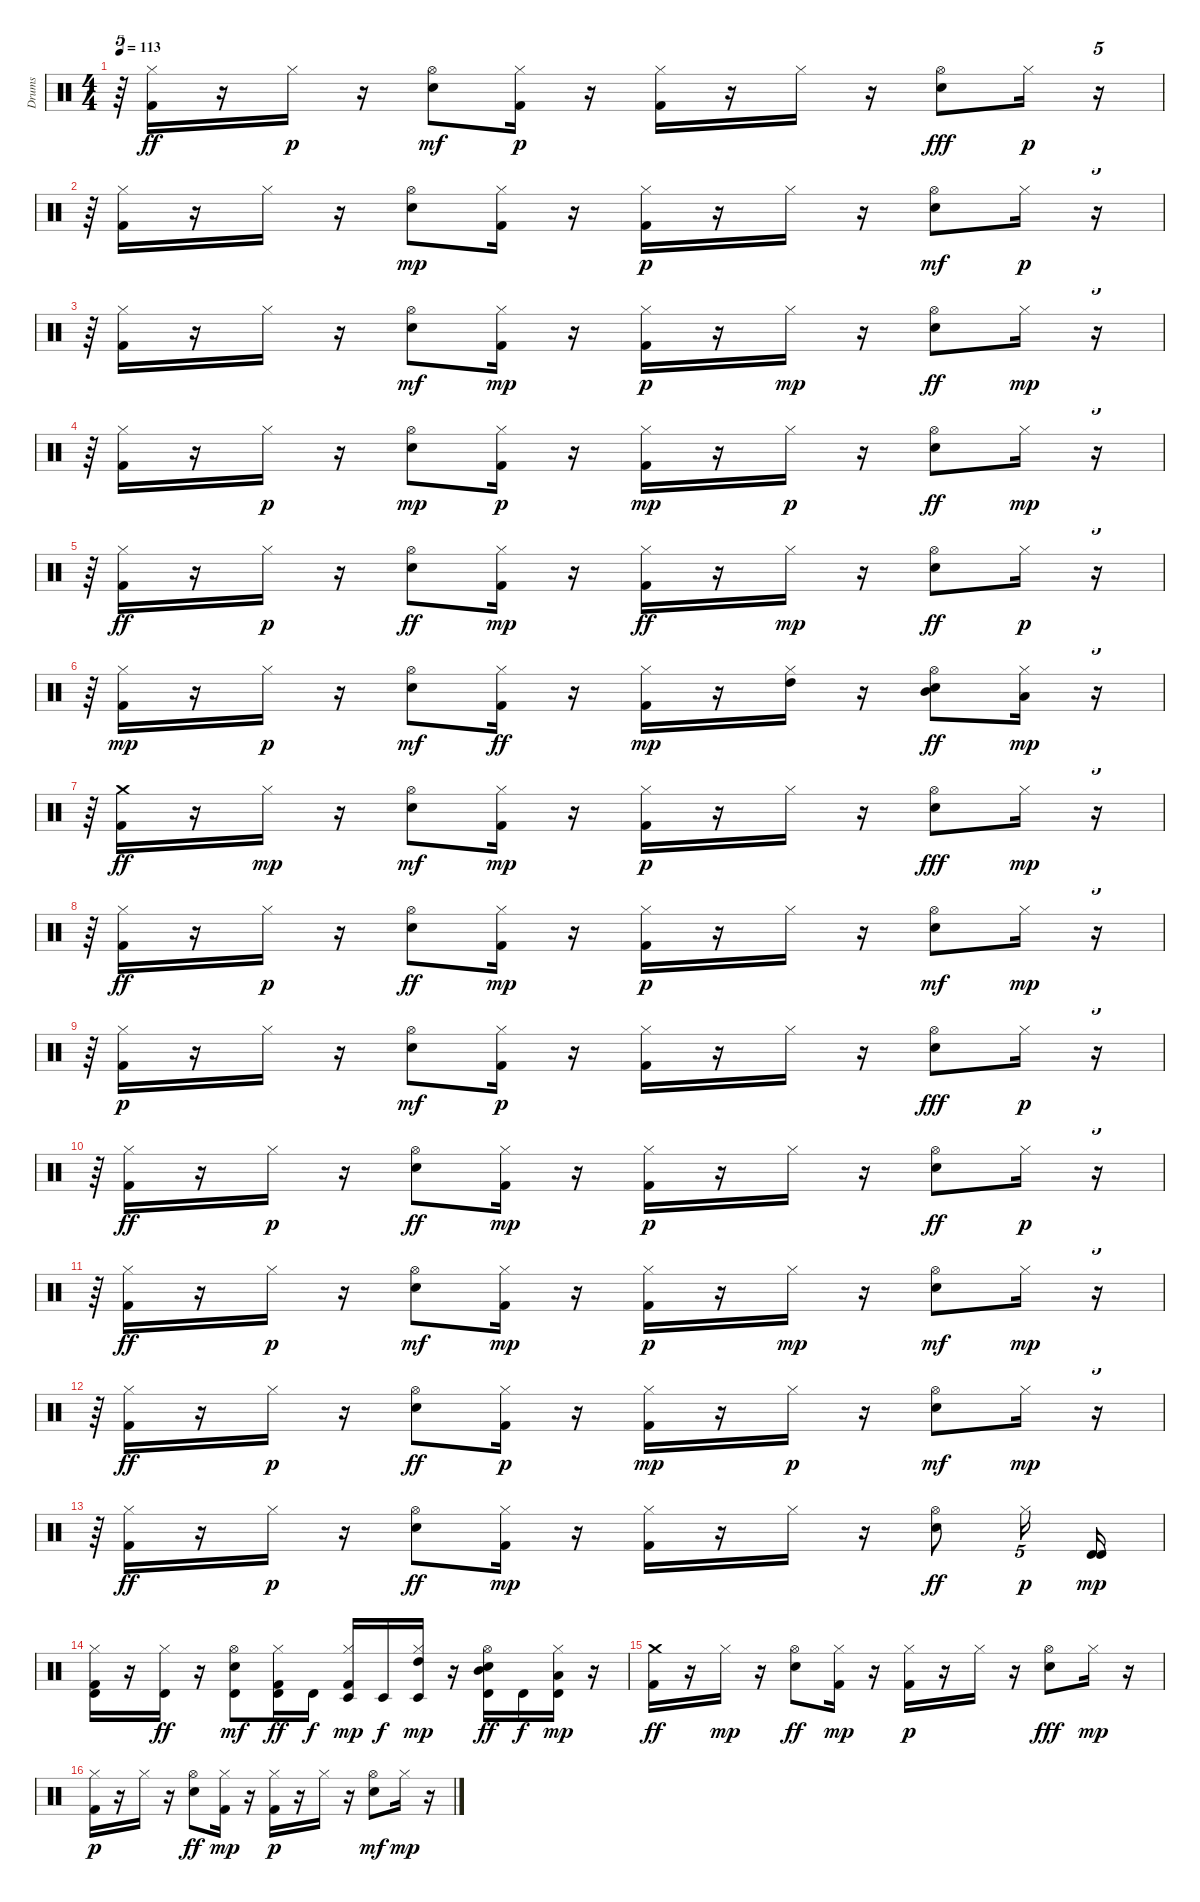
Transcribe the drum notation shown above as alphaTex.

\track ("Drums" "Drums") {instrument percussion}
\staff {score}
\articulation defaults
\ts (4 4)
\tempo 113
\clef neutral
\ks c
r.64{tu (5 4) dy mp} ("Hi-Hat (closed)" "Kick (hit) 2").16{dy ff} r.16 "Hi-Hat (closed)".16{dy p} r.16 ("Electric Snare (hit)" "Hi-Hat (open)").8{dy mf} ("Hi-Hat (closed)" "Kick (hit) 2").16{dy p} r.16 ("Kick (hit) 2" "Hi-Hat (closed)").16 r.16 "Hi-Hat (closed)".16 r.16 ("Electric Snare (hit)" "Hi-Hat (open)").8{dy fff} "Hi-Hat (closed)".16{dy p} r.16{tu (5 4)} |
r.64{tu (5 4)} ("Kick (hit) 2" "Hi-Hat (closed)").16 r.16 "Hi-Hat (closed)".16 r.16 ("Electric Snare (hit)" "Hi-Hat (open)").8{dy mp} ("Kick (hit) 2" "Hi-Hat (closed)").16 r.16 ("Hi-Hat (closed)" "Kick (hit) 2").16{dy p} r.16 "Hi-Hat (closed)".16 r.16 ("Electric Snare (hit)" "Hi-Hat (open)").8{dy mf} "Hi-Hat (closed)".16{dy p} r.16{tu (5 4)} |
r.64{tu (5 4)} ("Kick (hit) 2" "Hi-Hat (closed)").16 r.16 "Hi-Hat (closed)".16 r.16 ("Electric Snare (hit)" "Hi-Hat (open)").8{dy mf} ("Kick (hit) 2" "Hi-Hat (closed)").16{dy mp} r.16 ("Hi-Hat (closed)" "Kick (hit) 2").16{dy p} r.16 "Hi-Hat (closed)".16{dy mp} r.16 ("Hi-Hat (open)" "Electric Snare (hit)").8{dy ff} "Hi-Hat (closed)".16{dy mp} r.16{tu (5 4)} |
r.64{tu (5 4)} ("Kick (hit) 2" "Hi-Hat (closed)").16 r.16 "Hi-Hat (closed)".16{dy p} r.16 ("Electric Snare (hit)" "Hi-Hat (open)").8{dy mp} ("Hi-Hat (closed)" "Kick (hit) 2").16{dy p} r.16 ("Kick (hit) 2" "Hi-Hat (closed)").16{dy mp} r.16 "Hi-Hat (closed)".16{dy p} r.16 ("Hi-Hat (open)" "Electric Snare (hit)").8{dy ff} "Hi-Hat (closed)".16{dy mp} r.16{tu (5 4)} |
r.64{tu (5 4)} ("Hi-Hat (closed)" "Kick (hit) 2").16{dy ff} r.16 "Hi-Hat (closed)".16{dy p} r.16 ("Hi-Hat (open)" "Electric Snare (hit)").8{dy ff} ("Kick (hit) 2" "Hi-Hat (closed)").16{dy mp} r.16 ("Hi-Hat (closed)" "Kick (hit) 2").16{dy ff} r.16 "Hi-Hat (closed)".16{dy mp} r.16 ("Hi-Hat (open)" "Electric Snare (hit)").8{dy ff} "Hi-Hat (closed)".16{dy p} r.16{tu (5 4)} |
r.64{tu (5 4)} ("Kick (hit) 2" "Hi-Hat (closed)").16{dy mp} r.16 "Hi-Hat (closed)".16{dy p} r.16 ("Electric Snare (hit)" "Hi-Hat (open)").8{dy mf} ("Hi-Hat (closed)" "Kick (hit) 2").16{dy ff} r.16 ("Kick (hit) 2" "Hi-Hat (closed)").16{dy mp} r.16 ("Hi-Hat (closed)" "High Tom (hit)").16 r.16 ("Hi-Hat (open)" "Electric Snare (hit)" "Mid Tom (hit)").8{dy ff} ("Hi-Hat (closed)" "Low Tom (hit)").16{dy mp} r.16{tu (5 4)} |
r.64{tu (5 4)} ("Kick (hit) 2" "Crash medium (hit)").16{dy ff} r.16 "Hi-Hat (closed)".16{dy mp} r.16 ("Electric Snare (hit)" "Hi-Hat (open)").8{dy mf} ("Hi-Hat (closed)" "Kick (hit) 2").16{dy mp} r.16 ("Kick (hit) 2" "Hi-Hat (closed)").16{dy p} r.16 "Hi-Hat (closed)".16 r.16 ("Hi-Hat (open)" "Electric Snare (hit)").8{dy fff} "Hi-Hat (closed)".16{dy mp} r.16{tu (5 4)} |
r.64{tu (5 4)} ("Hi-Hat (closed)" "Kick (hit) 2").16{dy ff} r.16 "Hi-Hat (closed)".16{dy p} r.16 ("Hi-Hat (open)" "Electric Snare (hit)").8{dy ff} ("Kick (hit) 2" "Hi-Hat (closed)").16{dy mp} r.16 ("Hi-Hat (closed)" "Kick (hit) 2").16{dy p} r.16 "Hi-Hat (closed)".16 r.16 ("Electric Snare (hit)" "Hi-Hat (open)").8{dy mf} "Hi-Hat (closed)".16{dy mp} r.16{tu (5 4)} |
r.64{tu (5 4)} ("Kick (hit) 2" "Hi-Hat (closed)").16{dy p} r.16 "Hi-Hat (closed)".16 r.16 ("Electric Snare (hit)" "Hi-Hat (open)").8{dy mf} ("Hi-Hat (closed)" "Kick (hit) 2").16{dy p} r.16 ("Hi-Hat (closed)" "Kick (hit) 2").16 r.16 "Hi-Hat (closed)".16 r.16 ("Hi-Hat (open)" "Electric Snare (hit)").8{dy fff} "Hi-Hat (closed)".16{dy p} r.16{tu (5 4)} |
r.64{tu (5 4)} ("Hi-Hat (closed)" "Kick (hit) 2").16{dy ff} r.16 "Hi-Hat (closed)".16{dy p} r.16 ("Hi-Hat (open)" "Electric Snare (hit)").8{dy ff} ("Hi-Hat (closed)" "Kick (hit) 2").16{dy mp} r.16 ("Kick (hit) 2" "Hi-Hat (closed)").16{dy p} r.16 "Hi-Hat (closed)".16 r.16 ("Hi-Hat (open)" "Electric Snare (hit)").8{dy ff} "Hi-Hat (closed)".16{dy p} r.16{tu (5 4)} |
r.64{tu (5 4)} ("Hi-Hat (closed)" "Kick (hit) 2").16{dy ff} r.16 "Hi-Hat (closed)".16{dy p} r.16 ("Electric Snare (hit)" "Hi-Hat (open)").8{dy mf} ("Hi-Hat (closed)" "Kick (hit) 2").16{dy mp} r.16 ("Kick (hit) 2" "Hi-Hat (closed)").16{dy p} r.16 "Hi-Hat (closed)".16{dy mp} r.16 ("Electric Snare (hit)" "Hi-Hat (open)").8{dy mf} "Hi-Hat (closed)".16{dy mp} r.16{tu (5 4)} |
r.64{tu (5 4)} ("Hi-Hat (closed)" "Kick (hit) 2").16{dy ff} r.16 "Hi-Hat (closed)".16{dy p} r.16 ("Hi-Hat (open)" "Electric Snare (hit)").8{dy ff} ("Kick (hit) 2" "Hi-Hat (closed)").16{dy p} r.16 ("Hi-Hat (closed)" "Kick (hit) 2").16{dy mp} r.16 "Hi-Hat (closed)".16{dy p} r.16 ("Electric Snare (hit)" "Hi-Hat (open)").8{dy mf} "Hi-Hat (closed)".16{dy mp} r.16{tu (5 4)} |
r.64{tu (5 4)} ("Hi-Hat (closed)" "Kick (hit) 2").16{dy ff} r.16 "Hi-Hat (closed)".16{dy p} r.16 ("Hi-Hat (open)" "Electric Snare (hit)").8{dy ff} ("Kick (hit) 2" "Hi-Hat (closed)").16{dy mp} r.16 ("Kick (hit) 2" "Hi-Hat (closed)").16 r.16 "Hi-Hat (closed)".16 r.16 ("Hi-Hat (open)" "Electric Snare (hit)").8{dy ff} "Hi-Hat (closed)".16{tu (5 4) dy p} ("Timbale high (hit)" "Timbale high (hit)").16{dy mp} |
("Kick (hit) 2" "Timbale high (hit)" "Hi-Hat (closed)").16 r.16 ("Hi-Hat (closed)" "Timbale high (hit)").16{dy ff} r.16 ("Electric Snare (hit)" "Hi-Hat (open)" "Timbale high (hit)").8{dy mf} ("Hi-Hat (closed)" "Timbale high (hit)" "Kick (hit) 2").16{dy ff} "Timbale high (hit)".16{dy f} ("Timbale low (hit)" "Hi-Hat (closed)" "Kick (hit) 2").16{dy mp} "Timbale low (hit)".16{dy f} ("Hi-Hat (closed)" "Timbale low (hit)" "High Tom (hit)").16{dy mp} r.16 ("Timbale high (hit)" "Mid Tom (hit)" "Electric Snare (hit)" "Hi-Hat (open)").16{dy ff} "Timbale high (hit)".16{dy f} ("Low Tom (hit)" "Timbale high (hit)" "Hi-Hat (closed)").16{dy mp} r.16 |
("Crash medium (hit)" "Kick (hit) 2").16{dy ff} r.16 "Hi-Hat (closed)".16{dy mp} r.16 ("Hi-Hat (open)" "Electric Snare (hit)").8{dy ff} ("Kick (hit) 2" "Hi-Hat (closed)").16{dy mp} r.16 ("Kick (hit) 2" "Hi-Hat (closed)").16{dy p} r.16 "Hi-Hat (closed)".16 r.16 ("Electric Snare (hit)" "Hi-Hat (open)").8{dy fff} "Hi-Hat (closed)".16{dy mp} r.16 |
("Kick (hit) 2" "Hi-Hat (closed)").16{dy p} r.16 "Hi-Hat (closed)".16 r.16 ("Electric Snare (hit)" "Hi-Hat (open)").8{dy ff} ("Kick (hit) 2" "Hi-Hat (closed)").16{dy mp} r.16 ("Hi-Hat (closed)" "Kick (hit) 2").16{dy p} r.16 "Hi-Hat (closed)".16 r.16 ("Electric Snare (hit)" "Hi-Hat (open)").8{dy mf} "Hi-Hat (closed)".16{dy mp} r.16
